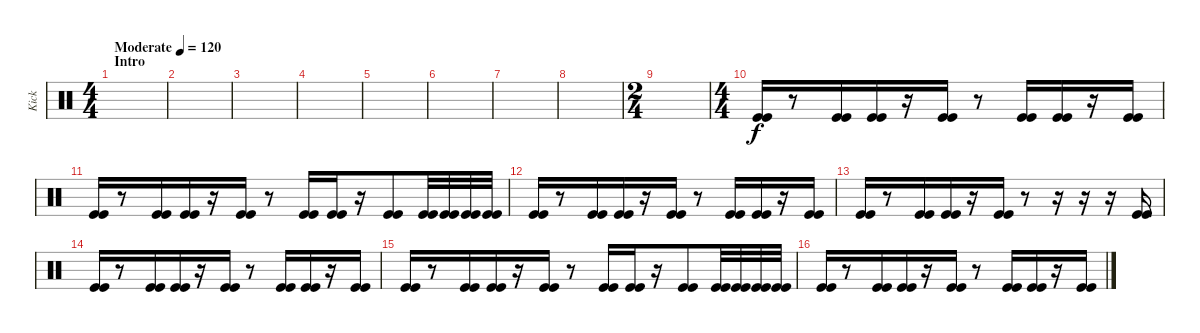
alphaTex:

\track ("Kick" "Kick") {instrument percussion}
\staff {score}
\articulation defaults
\ts (4 4)
\section ("" "Intro")
\tempo (120 "Moderate")
\clef neutral
\ks c
|
|
|
|
|
|
|
|
\ts (2 4)
|
\ts (4 4)
("Kick (hit)" "Kick (hit)").16{beam merge} r.8{beam merge} ("Kick (hit)" "Kick (hit)").16{beam merge} ("Kick (hit)" "Kick (hit)").16 r.16{beam merge} ("Kick (hit)" "Kick (hit)").16 r.8 ("Kick (hit)" "Kick (hit)").16 ("Kick (hit)" "Kick (hit)").16{beam merge} r.16 ("Kick (hit)" "Kick (hit)").16 |
("Kick (hit)" "Kick (hit)").16{beam merge} r.8{beam merge} ("Kick (hit)" "Kick (hit)").16{beam merge} ("Kick (hit)" "Kick (hit)").16 r.16{beam merge} ("Kick (hit)" "Kick (hit)").16 r.8 ("Kick (hit)" "Kick (hit)").16 ("Kick (hit)" "Kick (hit)").16{beam merge} r.16 ("Kick (hit)" "Kick (hit)").8 ("Kick (hit)" "Kick (hit)").32 ("Kick (hit)" "Kick (hit)").32 ("Kick (hit)" "Kick (hit)").32 ("Kick (hit)" "Kick (hit)").32 |
("Kick (hit)" "Kick (hit)").16{beam merge} r.8{beam merge} ("Kick (hit)" "Kick (hit)").16{beam merge} ("Kick (hit)" "Kick (hit)").16 r.16{beam merge} ("Kick (hit)" "Kick (hit)").16 r.8 ("Kick (hit)" "Kick (hit)").16 ("Kick (hit)" "Kick (hit)").16{beam merge} r.16 ("Kick (hit)" "Kick (hit)").16 |
("Kick (hit)" "Kick (hit)").16{beam merge} r.8{beam merge} ("Kick (hit)" "Kick (hit)").16{beam merge} ("Kick (hit)" "Kick (hit)").16 r.16{beam merge} ("Kick (hit)" "Kick (hit)").16 r.8 r.16 r.16{beam merge} r.16 ("Kick (hit)" "Kick (hit)").16 |
("Kick (hit)" "Kick (hit)").16{beam merge} r.8{beam merge} ("Kick (hit)" "Kick (hit)").16{beam merge} ("Kick (hit)" "Kick (hit)").16 r.16{beam merge} ("Kick (hit)" "Kick (hit)").16 r.8 ("Kick (hit)" "Kick (hit)").16 ("Kick (hit)" "Kick (hit)").16{beam merge} r.16 ("Kick (hit)" "Kick (hit)").16 |
("Kick (hit)" "Kick (hit)").16{beam merge} r.8{beam merge} ("Kick (hit)" "Kick (hit)").16{beam merge} ("Kick (hit)" "Kick (hit)").16 r.16{beam merge} ("Kick (hit)" "Kick (hit)").16 r.8 ("Kick (hit)" "Kick (hit)").16 ("Kick (hit)" "Kick (hit)").16{beam merge} r.16 ("Kick (hit)" "Kick (hit)").8 ("Kick (hit)" "Kick (hit)").32 ("Kick (hit)" "Kick (hit)").32 ("Kick (hit)" "Kick (hit)").32 ("Kick (hit)" "Kick (hit)").32 |
("Kick (hit)" "Kick (hit)").16{beam merge} r.8{beam merge} ("Kick (hit)" "Kick (hit)").16{beam merge} ("Kick (hit)" "Kick (hit)").16 r.16{beam merge} ("Kick (hit)" "Kick (hit)").16 r.8 ("Kick (hit)" "Kick (hit)").16 ("Kick (hit)" "Kick (hit)").16{beam merge} r.16 ("Kick (hit)" "Kick (hit)").16
